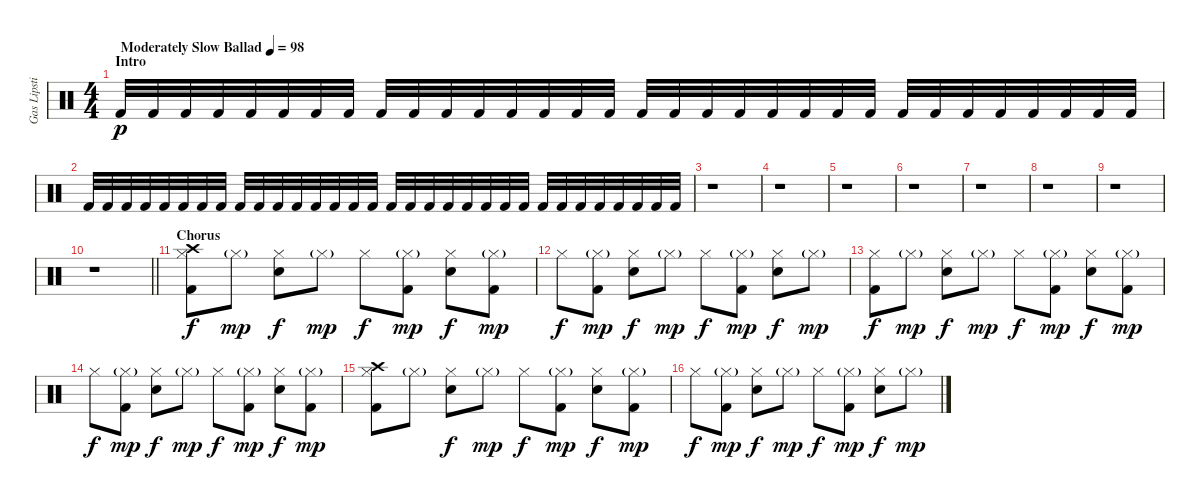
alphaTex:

\track ("Gas Lipstick (Drums)" "Gas Lipsti") {instrument percussion}
\staff {score}
\articulation defaults
\ts (4 4)
\section ("" "Intro")
\tempo (98 "Moderately Slow Ballad")
\clef neutral
\ks c "Kick (hit) 2".32{dy p} "Kick (hit) 2".32 "Kick (hit) 2".32 "Kick (hit) 2".32 "Kick (hit) 2".32 "Kick (hit) 2".32 "Kick (hit) 2".32 "Kick (hit) 2".32 "Kick (hit) 2".32 "Kick (hit) 2".32 "Kick (hit) 2".32 "Kick (hit) 2".32 "Kick (hit) 2".32 "Kick (hit) 2".32 "Kick (hit) 2".32 "Kick (hit) 2".32 "Kick (hit) 2".32 "Kick (hit) 2".32 "Kick (hit) 2".32 "Kick (hit) 2".32 "Kick (hit) 2".32 "Kick (hit) 2".32 "Kick (hit) 2".32 "Kick (hit) 2".32 "Kick (hit) 2".32 "Kick (hit) 2".32 "Kick (hit) 2".32 "Kick (hit) 2".32 "Kick (hit) 2".32 "Kick (hit) 2".32 "Kick (hit) 2".32 "Kick (hit) 2".32
|
"Kick (hit) 2".32 "Kick (hit) 2".32 "Kick (hit) 2".32 "Kick (hit) 2".32 "Kick (hit) 2".32 "Kick (hit) 2".32 "Kick (hit) 2".32 "Kick (hit) 2".32 "Kick (hit) 2".32 "Kick (hit) 2".32 "Kick (hit) 2".32 "Kick (hit) 2".32 "Kick (hit) 2".32 "Kick (hit) 2".32 "Kick (hit) 2".32 "Kick (hit) 2".32 "Kick (hit) 2".32 "Kick (hit) 2".32 "Kick (hit) 2".32 "Kick (hit) 2".32 "Kick (hit) 2".32 "Kick (hit) 2".32 "Kick (hit) 2".32 "Kick (hit) 2".32 "Kick (hit) 2".32 "Kick (hit) 2".32 "Kick (hit) 2".32 "Kick (hit) 2".32 "Kick (hit) 2".32 "Kick (hit) 2".32 "Kick (hit) 2".32 "Kick (hit) 2".32 |
r.1 |
r.1 |
r.1 |
r.1 |
r.1 |
r.1 |
r.1 |
\barLineRight lightlight
r.1 |
\section ("" "Chorus")
("Crash high (hit)" "Hi-Hat (closed)" "Kick (hit) 2").8{dy f} "Hi-Hat (closed)"{g}.8{dy mp} ("Hi-Hat (closed)" "Snare (hit) 2").8{dy f} "Hi-Hat (closed)"{g}.8{dy mp} "Hi-Hat (closed)".8{dy f} ("Hi-Hat (closed)"{g} "Kick (hit) 2").8{dy mp} ("Hi-Hat (closed)" "Snare (hit) 2").8{dy f} ("Hi-Hat (closed)"{g} "Kick (hit) 2").8{dy mp} |
"Hi-Hat (closed)".8{dy f} ("Hi-Hat (closed)"{g} "Kick (hit) 2").8{dy mp} ("Hi-Hat (closed)" "Snare (hit) 2").8{dy f} "Hi-Hat (closed)"{g}.8{dy mp} "Hi-Hat (closed)".8{dy f} ("Hi-Hat (closed)"{g} "Kick (hit) 2").8{dy mp} ("Hi-Hat (closed)" "Snare (hit) 2").8{dy f} "Hi-Hat (closed)"{g}.8{dy mp} |
("Hi-Hat (closed)" "Kick (hit) 2").8{dy f} "Hi-Hat (closed)"{g}.8{dy mp} ("Hi-Hat (closed)" "Snare (hit) 2").8{dy f} "Hi-Hat (closed)"{g}.8{dy mp} "Hi-Hat (closed)".8{dy f} ("Hi-Hat (closed)"{g} "Kick (hit) 2").8{dy mp} ("Hi-Hat (closed)" "Snare (hit) 2").8{dy f} ("Hi-Hat (closed)"{g} "Kick (hit) 2").8{dy mp} |
"Hi-Hat (closed)".8{dy f} ("Hi-Hat (closed)"{g} "Kick (hit) 2").8{dy mp} ("Hi-Hat (closed)" "Snare (hit) 2").8{dy f} "Hi-Hat (closed)"{g}.8{dy mp} "Hi-Hat (closed)".8{dy f} ("Hi-Hat (closed)"{g} "Kick (hit) 2").8{dy mp} ("Hi-Hat (closed)" "Snare (hit) 2").8{dy f} ("Hi-Hat (closed)"{g} "Kick (hit) 2").8{dy mp} |
("Crash high (hit)" "Hi-Hat (closed)" "Kick (hit) 2").8 "Hi-Hat (closed)"{g}.8 ("Hi-Hat (closed)" "Snare (hit) 2").8{dy f} "Hi-Hat (closed)"{g}.8{dy mp} "Hi-Hat (closed)".8{dy f} ("Hi-Hat (closed)"{g} "Kick (hit) 2").8{dy mp} ("Hi-Hat (closed)" "Snare (hit) 2").8{dy f} ("Hi-Hat (closed)"{g} "Kick (hit) 2").8{dy mp} |
"Hi-Hat (closed)".8{dy f} ("Hi-Hat (closed)"{g} "Kick (hit) 2").8{dy mp} ("Hi-Hat (closed)" "Snare (hit) 2").8{dy f} "Hi-Hat (closed)"{g}.8{dy mp} "Hi-Hat (closed)".8{dy f} ("Hi-Hat (closed)"{g} "Kick (hit) 2").8{dy mp} ("Hi-Hat (closed)" "Snare (hit) 2").8{dy f} "Hi-Hat (closed)"{g}.8{dy mp}
